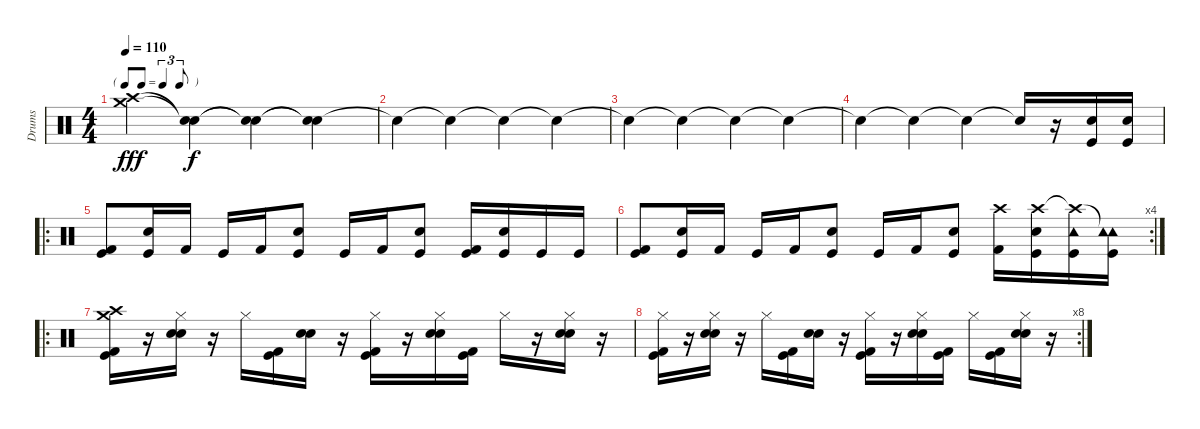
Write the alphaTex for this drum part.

\track ("Drums" "Drums") {instrument percussion}
\staff {score}
\articulation defaults
\ts (4 4)
\tf triplet8th
\tempo 110
\clef neutral
\ks c
("Crash high (hit)" "Crash medium (hit)").4{dy fff} ("Snare (hit)"{t} "Snare (hit)"{t}).4{dy f} ("Snare (hit)"{t} "Snare (hit)"{t}).4 ("Snare (hit)"{t} "Snare (hit)"{t}).4 |
"Snare (hit)"{t}.4 "Snare (hit)"{t}.4 "Snare (hit)"{t}.4 "Snare (hit)"{t}.4 |
"Snare (hit)"{t}.4 "Snare (hit)"{t}.4 "Snare (hit)"{t}.4 "Snare (hit)"{t}.4 |
"Snare (hit)"{t}.4 "Snare (hit)"{t}.4 "Snare (hit)"{t}.4 "Snare (hit)"{t}.16 r.16 ("Electric Snare (hit)" "Kick (hit)").16 ("Electric Snare (hit)" "Kick (hit)").16 |
\ro
("Kick (hit)" "Kick (hit) 2").8 ("Kick (hit)" "Electric Snare (hit)").16 "Kick (hit) 2".16 "Kick (hit)".16 "Kick (hit) 2".16 ("Kick (hit)" "Electric Snare (hit)").8 "Kick (hit)".16 "Kick (hit) 2".16 ("Kick (hit)" "Electric Snare (hit)").8 ("Kick (hit)" "Kick (hit) 2").16 ("Kick (hit)" "Electric Snare (hit)").16 "Kick (hit)".16 "Kick (hit)".16 |
\rc 4
("Kick (hit)" "Kick (hit) 2").8 ("Kick (hit)" "Electric Snare (hit)").16 "Kick (hit) 2".16 "Kick (hit)".16 "Kick (hit) 2".16 ("Kick (hit)" "Electric Snare (hit)").8 "Kick (hit)".16 "Kick (hit) 2".16 ("Kick (hit)" "Electric Snare (hit)").8 ("Crash high (hit)" "Kick (hit) 2").16 ("Kick (hit)" "Crash high (hit)" "Electric Snare (hit)").16 ("Kick (hit)" "Crash high (hit)"{t} "Tambourine (hit)").16 ("Kick (hit)" "Tambourine (hit)"{t} "Tambourine (hit)").16 |
\ro
("Crash high (hit)" "Crash medium (hit)" "Kick (hit) 2" "Kick (hit)").16 r.16 ("Hi-Hat (closed)" "Electric Snare (hit)" "Snare (hit) 2").16 r.16 "Hi-Hat (closed)".16 ("Kick (hit) 2" "Kick (hit)").16 ("Electric Snare (hit)" "Snare (hit) 2").16 r.16 ("Hi-Hat (closed)" "Kick (hit) 2" "Kick (hit)").16 r.16 ("Hi-Hat (closed)" "Electric Snare (hit)" "Snare (hit) 2").16 ("Kick (hit) 2" "Kick (hit)").16 "Hi-Hat (closed)".16 r.16 ("Hi-Hat (closed)" "Electric Snare (hit)" "Snare (hit) 2").16 r.16 |
\rc 8
("Hi-Hat (closed)" "Kick (hit) 2" "Kick (hit)").16 r.16 ("Hi-Hat (closed)" "Electric Snare (hit)" "Snare (hit) 2").16 r.16 "Hi-Hat (closed)".16 ("Kick (hit) 2" "Kick (hit)").16 ("Electric Snare (hit)" "Snare (hit) 2").16 r.16 ("Hi-Hat (closed)" "Kick (hit) 2" "Kick (hit)").16 r.16 ("Hi-Hat (closed)" "Electric Snare (hit)" "Snare (hit) 2").16 ("Kick (hit) 2" "Kick (hit)").16 "Hi-Hat (closed)".16 ("Kick (hit) 2" "Kick (hit)").16 ("Hi-Hat (closed)" "Electric Snare (hit)" "Snare (hit) 2").16 r.16
